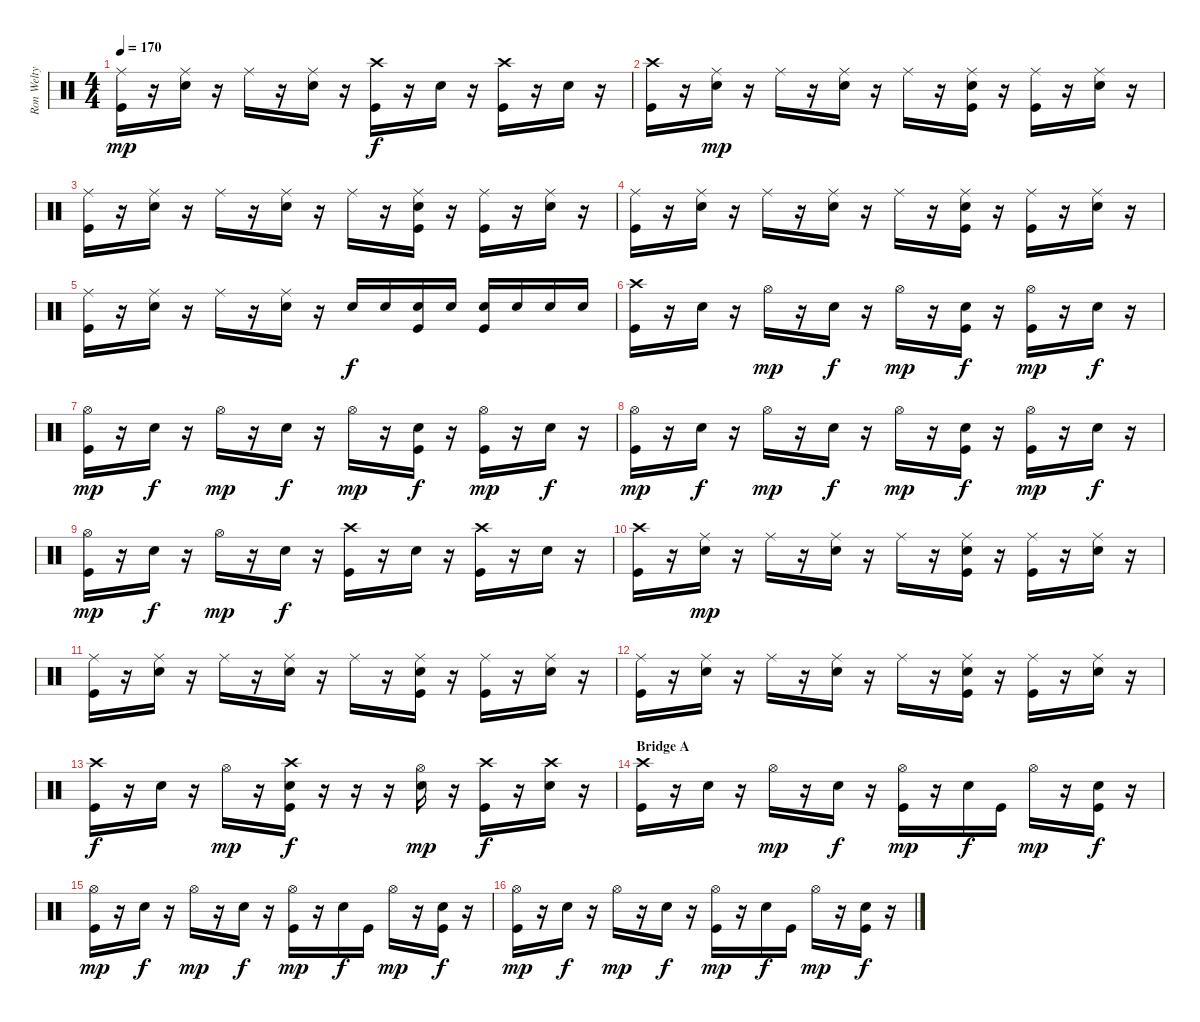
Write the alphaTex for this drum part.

\track ("Ron Welty" "Ron Welty") {instrument percussion}
\staff {score}
\articulation defaults
\ts (4 4)
\tempo 170
\clef neutral
\ks c
("Ride (middle)" "Kick (hit)").16{dy mp} r.16 ("Ride (middle)" "Snare (hit) 2").16 r.16 "Ride (middle)".16 r.16 ("Ride (middle)" "Snare (hit) 2").16 r.16 ("Crash high (hit)" "Kick (hit)").16{dy f} r.16 "Snare (hit) 2".16 r.16 ("Crash high (hit)" "Kick (hit)").16 r.16 "Snare (hit) 2".16 r.16 |
("Crash high (hit)" "Kick (hit)").16 r.16 ("Ride (middle)" "Snare (hit) 2").16{dy mp} r.16 "Ride (middle)".16 r.16 ("Ride (middle)" "Snare (hit) 2").16 r.16 "Ride (middle)".16 r.16 ("Ride (middle)" "Snare (hit) 2" "Kick (hit)").16 r.16 ("Ride (middle)" "Kick (hit)").16 r.16 ("Ride (middle)" "Snare (hit) 2").16 r.16 |
("Ride (middle)" "Kick (hit)").16 r.16 ("Ride (middle)" "Snare (hit) 2").16 r.16 "Ride (middle)".16 r.16 ("Ride (middle)" "Snare (hit) 2").16 r.16 "Ride (middle)".16 r.16 ("Ride (middle)" "Snare (hit) 2" "Kick (hit)").16 r.16 ("Ride (middle)" "Kick (hit)").16 r.16 ("Ride (middle)" "Snare (hit) 2").16 r.16 |
("Ride (middle)" "Kick (hit)").16 r.16 ("Ride (middle)" "Snare (hit) 2").16 r.16 "Ride (middle)".16 r.16 ("Ride (middle)" "Snare (hit) 2").16 r.16 "Ride (middle)".16 r.16 ("Ride (middle)" "Snare (hit) 2" "Kick (hit)").16 r.16 ("Ride (middle)" "Kick (hit)").16 r.16 ("Ride (middle)" "Snare (hit) 2").16 r.16 |
("Ride (middle)" "Kick (hit)").16 r.16 ("Ride (middle)" "Snare (hit) 2").16 r.16 "Ride (middle)".16 r.16 ("Ride (middle)" "Snare (hit) 2").16 r.16 "Snare (hit) 2".16{dy f} "Snare (hit) 2".16 ("Snare (hit) 2" "Kick (hit)").16 "Snare (hit) 2".16 ("Snare (hit) 2" "Kick (hit)").16 "Snare (hit) 2".16 "Snare (hit) 2".16 "Snare (hit) 2".16 |
("Crash high (hit)" "Kick (hit)").16 r.16 "Snare (hit) 2".16 r.16 "Hi-Hat (open)".16{dy mp} r.16 "Snare (hit) 2".16{dy f} r.16 "Hi-Hat (open)".16{dy mp} r.16 ("Snare (hit) 2" "Kick (hit)").16{dy f} r.16 ("Hi-Hat (open)" "Kick (hit)").16{dy mp} r.16 "Snare (hit) 2".16{dy f} r.16 |
("Hi-Hat (open)" "Kick (hit)").16{dy mp} r.16 "Snare (hit) 2".16{dy f} r.16 "Hi-Hat (open)".16{dy mp} r.16 "Snare (hit) 2".16{dy f} r.16 "Hi-Hat (open)".16{dy mp} r.16 ("Snare (hit) 2" "Kick (hit)").16{dy f} r.16 ("Hi-Hat (open)" "Kick (hit)").16{dy mp} r.16 "Snare (hit) 2".16{dy f} r.16 |
("Hi-Hat (open)" "Kick (hit)").16{dy mp} r.16 "Snare (hit) 2".16{dy f} r.16 "Hi-Hat (open)".16{dy mp} r.16 "Snare (hit) 2".16{dy f} r.16 "Hi-Hat (open)".16{dy mp} r.16 ("Snare (hit) 2" "Kick (hit)").16{dy f} r.16 ("Hi-Hat (open)" "Kick (hit)").16{dy mp} r.16 "Snare (hit) 2".16{dy f} r.16 |
("Hi-Hat (open)" "Kick (hit)").16{dy mp} r.16 "Snare (hit) 2".16{dy f} r.16 "Hi-Hat (open)".16{dy mp} r.16 "Snare (hit) 2".16{dy f} r.16 ("Crash high (hit)" "Kick (hit)").16 r.16 "Snare (hit) 2".16 r.16 ("Crash high (hit)" "Kick (hit)").16 r.16 "Snare (hit) 2".16 r.16 |
("Crash high (hit)" "Kick (hit)").16 r.16 ("Ride (middle)" "Snare (hit) 2").16{dy mp} r.16 "Ride (middle)".16 r.16 ("Ride (middle)" "Snare (hit) 2").16 r.16 "Ride (middle)".16 r.16 ("Ride (middle)" "Snare (hit) 2" "Kick (hit)").16 r.16 ("Ride (middle)" "Kick (hit)").16 r.16 ("Ride (middle)" "Snare (hit) 2").16 r.16 |
("Ride (middle)" "Kick (hit)").16 r.16 ("Ride (middle)" "Snare (hit) 2").16 r.16 "Ride (middle)".16 r.16 ("Ride (middle)" "Snare (hit) 2").16 r.16 "Ride (middle)".16 r.16 ("Ride (middle)" "Snare (hit) 2" "Kick (hit)").16 r.16 ("Ride (middle)" "Kick (hit)").16 r.16 ("Ride (middle)" "Snare (hit) 2").16 r.16 |
("Ride (middle)" "Kick (hit)").16 r.16 ("Ride (middle)" "Snare (hit) 2").16 r.16 "Ride (middle)".16 r.16 ("Ride (middle)" "Snare (hit) 2").16 r.16 "Ride (middle)".16 r.16 ("Ride (middle)" "Snare (hit) 2" "Kick (hit)").16 r.16 ("Ride (middle)" "Kick (hit)").16 r.16 ("Ride (middle)" "Snare (hit) 2").16 r.16 |
("Crash high (hit)" "Kick (hit)").16{dy f} r.16 "Snare (hit) 2".16 r.16 "Hi-Hat (open)".16{dy mp} r.16 ("Crash high (hit)" "Snare (hit) 2" "Kick (hit)").16{dy f} r.16 r.16 r.16 ("Hi-Hat (open)" "Snare (hit) 2").16{dy mp} r.16 ("Crash high (hit)" "Kick (hit)").16{dy f} r.16 ("Crash high (hit)" "Snare (hit) 2").16 r.16 |
\section ("" "Bridge A")
("Crash high (hit)" "Kick (hit)").16 r.16 "Snare (hit) 2".16 r.16 "Hi-Hat (open)".16{dy mp} r.16 "Snare (hit) 2".16{dy f} r.16 ("Hi-Hat (open)" "Kick (hit)").16{dy mp} r.16 "Snare (hit) 2".16{dy f} "Kick (hit)".16 "Hi-Hat (open)".16{dy mp} r.16 ("Snare (hit) 2" "Kick (hit)").16{dy f} r.16 |
("Hi-Hat (open)" "Kick (hit)").16{dy mp} r.16 "Snare (hit) 2".16{dy f} r.16 "Hi-Hat (open)".16{dy mp} r.16 "Snare (hit) 2".16{dy f} r.16 ("Hi-Hat (open)" "Kick (hit)").16{dy mp} r.16 "Snare (hit) 2".16{dy f} "Kick (hit)".16 "Hi-Hat (open)".16{dy mp} r.16 ("Snare (hit) 2" "Kick (hit)").16{dy f} r.16 |
("Hi-Hat (open)" "Kick (hit)").16{dy mp} r.16 "Snare (hit) 2".16{dy f} r.16 "Hi-Hat (open)".16{dy mp} r.16 "Snare (hit) 2".16{dy f} r.16 ("Hi-Hat (open)" "Kick (hit)").16{dy mp} r.16 "Snare (hit) 2".16{dy f} "Kick (hit)".16 "Hi-Hat (open)".16{dy mp} r.16 ("Snare (hit) 2" "Kick (hit)").16{dy f} r.16
